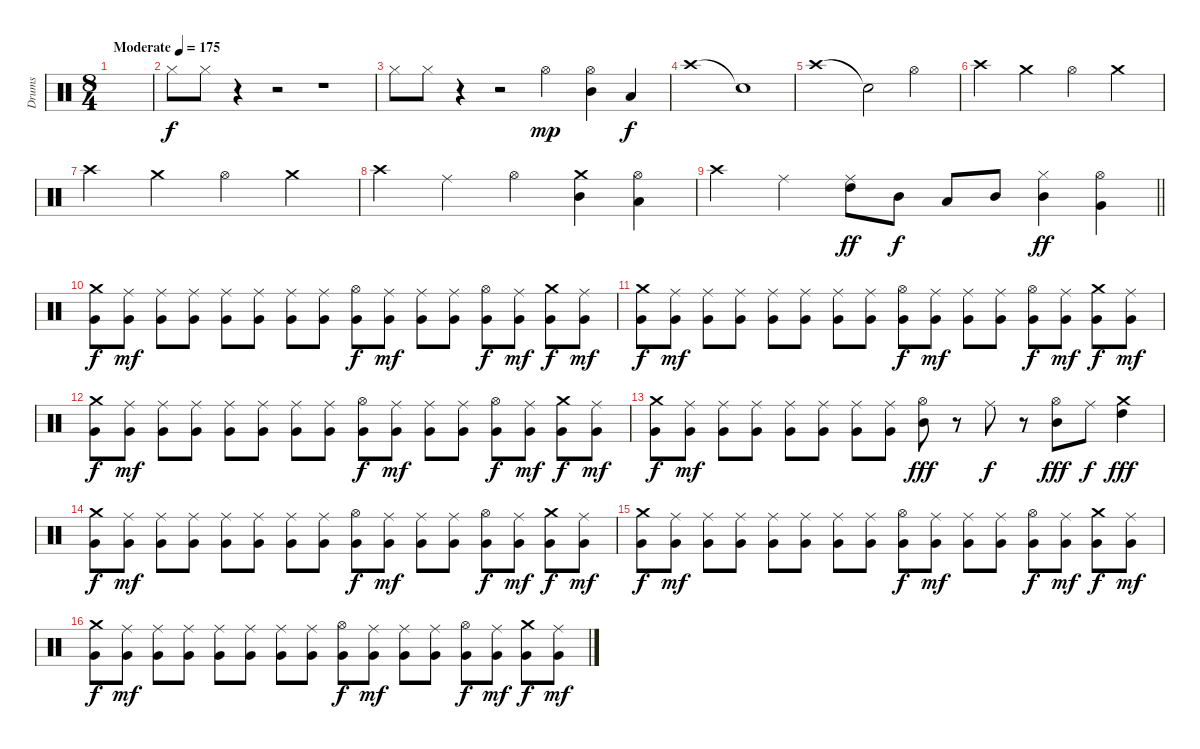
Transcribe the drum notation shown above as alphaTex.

\track ("Drums" "Drums") {instrument percussion}
\staff {score}
\articulation defaults
\ts (8 4)
\tempo (175 "Moderate")
\clef neutral
\ks c
|
"Hi-Hat (closed)".8 "Hi-Hat (closed)".8 r.4 r.2 r.1 |
"Hi-Hat (closed)".8 "Hi-Hat (closed)".8 r.4 r.2 "Hi-Hat (open)".2{dy mp} ("Hi-Hat (open)" "Mid Tom (hit)").4 "Low Tom (hit)".4{dy f} |
"Crash high (hit)".1 "Snare (hit)"{t}.1 |
"Crash high (hit)".1 "Snare (hit)"{t}.2 "Hi-Hat (open)".2 |
"Crash high (hit)".2 "Crash medium (hit)".2 "Hi-Hat (open)".2 "Crash medium (hit)".2 |
"Crash high (hit)".2 "Crash medium (hit)".2 "Hi-Hat (open)".2 "Crash medium (hit)".2 |
"Crash high (hit)".2 "Ride (middle)".2 "Hi-Hat (open)".2 ("Crash medium (hit)" "Mid Tom (hit)").4 ("Hi-Hat (open)" "Low Tom (hit)").4 |
\barLineRight lightlight "Crash high (hit)".2 "Ride (middle)".2
("Ride (middle)" "High Tom (hit)").8{dy ff} "Mid Tom (hit)".8{dy f} "Low Tom (hit)".8 "Mid Tom (hit)".8 ("Hi-Hat (closed)" "Mid Tom (hit)").4{dy ff} ("Hi-Hat (open)" "Very Low Tom (hit)").4 |
\section ("" "")
("Crash medium (hit)" "Very Low Tom (hit)").8{dy f} ("Ride (middle)" "Very Low Tom (hit)").8{dy mf} ("Ride (middle)" "Very Low Tom (hit)").8 ("Ride (middle)" "Very Low Tom (hit)").8 ("Ride (middle)" "Very Low Tom (hit)").8 ("Ride (middle)" "Very Low Tom (hit)").8 ("Ride (middle)" "Very Low Tom (hit)").8 ("Ride (middle)" "Very Low Tom (hit)").8 ("Hi-Hat (open)" "Very Low Tom (hit)").8{dy f} ("Ride (middle)" "Very Low Tom (hit)").8{dy mf} ("Ride (middle)" "Very Low Tom (hit)").8 ("Ride (middle)" "Very Low Tom (hit)").8 ("Hi-Hat (open)" "Very Low Tom (hit)").8{dy f} ("Ride (middle)" "Very Low Tom (hit)").8{dy mf} ("Crash medium (hit)" "Very Low Tom (hit)").8{dy f} ("Ride (middle)" "Very Low Tom (hit)").8{dy mf} |
("Crash medium (hit)" "Very Low Tom (hit)").8{dy f} ("Ride (middle)" "Very Low Tom (hit)").8{dy mf} ("Ride (middle)" "Very Low Tom (hit)").8 ("Ride (middle)" "Very Low Tom (hit)").8 ("Ride (middle)" "Very Low Tom (hit)").8 ("Ride (middle)" "Very Low Tom (hit)").8 ("Ride (middle)" "Very Low Tom (hit)").8 ("Ride (middle)" "Very Low Tom (hit)").8 ("Hi-Hat (open)" "Very Low Tom (hit)").8{dy f} ("Ride (middle)" "Very Low Tom (hit)").8{dy mf} ("Ride (middle)" "Very Low Tom (hit)").8 ("Ride (middle)" "Very Low Tom (hit)").8 ("Hi-Hat (open)" "Very Low Tom (hit)").8{dy f} ("Ride (middle)" "Very Low Tom (hit)").8{dy mf} ("Crash medium (hit)" "Very Low Tom (hit)").8{dy f} ("Ride (middle)" "Very Low Tom (hit)").8{dy mf} |
("Crash medium (hit)" "Very Low Tom (hit)").8{dy f} ("Ride (middle)" "Very Low Tom (hit)").8{dy mf} ("Ride (middle)" "Very Low Tom (hit)").8 ("Ride (middle)" "Very Low Tom (hit)").8 ("Ride (middle)" "Very Low Tom (hit)").8 ("Ride (middle)" "Very Low Tom (hit)").8 ("Ride (middle)" "Very Low Tom (hit)").8 ("Ride (middle)" "Very Low Tom (hit)").8 ("Hi-Hat (open)" "Very Low Tom (hit)").8{dy f} ("Ride (middle)" "Very Low Tom (hit)").8{dy mf} ("Ride (middle)" "Very Low Tom (hit)").8 ("Ride (middle)" "Very Low Tom (hit)").8 ("Hi-Hat (open)" "Very Low Tom (hit)").8{dy f} ("Ride (middle)" "Very Low Tom (hit)").8{dy mf} ("Crash medium (hit)" "Very Low Tom (hit)").8{dy f} ("Ride (middle)" "Very Low Tom (hit)").8{dy mf} |
("Crash medium (hit)" "Very Low Tom (hit)").8{dy f} ("Ride (middle)" "Very Low Tom (hit)").8{dy mf} ("Ride (middle)" "Very Low Tom (hit)").8 ("Ride (middle)" "Very Low Tom (hit)").8 ("Ride (middle)" "Very Low Tom (hit)").8 ("Ride (middle)" "Very Low Tom (hit)").8 ("Ride (middle)" "Very Low Tom (hit)").8 ("Ride (middle)" "Very Low Tom (hit)").8 ("Hi-Hat (open)" "Mid Tom (hit)").8{dy fff} r.8 "Ride (middle)".8{dy f} r.8 ("Hi-Hat (open)" "Mid Tom (hit)").8{dy fff} "Ride (middle)".8{dy f} ("Crash medium (hit)" "High Tom (hit)").4{dy fff} |
("Crash medium (hit)" "Very Low Tom (hit)").8{dy f} ("Ride (middle)" "Very Low Tom (hit)").8{dy mf} ("Ride (middle)" "Very Low Tom (hit)").8 ("Ride (middle)" "Very Low Tom (hit)").8 ("Ride (middle)" "Very Low Tom (hit)").8 ("Ride (middle)" "Very Low Tom (hit)").8 ("Ride (middle)" "Very Low Tom (hit)").8 ("Ride (middle)" "Very Low Tom (hit)").8 ("Hi-Hat (open)" "Very Low Tom (hit)").8{dy f} ("Ride (middle)" "Very Low Tom (hit)").8{dy mf} ("Ride (middle)" "Very Low Tom (hit)").8 ("Ride (middle)" "Very Low Tom (hit)").8 ("Hi-Hat (open)" "Very Low Tom (hit)").8{dy f} ("Ride (middle)" "Very Low Tom (hit)").8{dy mf} ("Crash medium (hit)" "Very Low Tom (hit)").8{dy f} ("Ride (middle)" "Very Low Tom (hit)").8{dy mf} |
("Crash medium (hit)" "Very Low Tom (hit)").8{dy f} ("Ride (middle)" "Very Low Tom (hit)").8{dy mf} ("Ride (middle)" "Very Low Tom (hit)").8 ("Ride (middle)" "Very Low Tom (hit)").8 ("Ride (middle)" "Very Low Tom (hit)").8 ("Ride (middle)" "Very Low Tom (hit)").8 ("Ride (middle)" "Very Low Tom (hit)").8 ("Ride (middle)" "Very Low Tom (hit)").8 ("Hi-Hat (open)" "Very Low Tom (hit)").8{dy f} ("Ride (middle)" "Very Low Tom (hit)").8{dy mf} ("Ride (middle)" "Very Low Tom (hit)").8 ("Ride (middle)" "Very Low Tom (hit)").8 ("Hi-Hat (open)" "Very Low Tom (hit)").8{dy f} ("Ride (middle)" "Very Low Tom (hit)").8{dy mf} ("Crash medium (hit)" "Very Low Tom (hit)").8{dy f} ("Ride (middle)" "Very Low Tom (hit)").8{dy mf} |
("Crash medium (hit)" "Very Low Tom (hit)").8{dy f} ("Ride (middle)" "Very Low Tom (hit)").8{dy mf} ("Ride (middle)" "Very Low Tom (hit)").8 ("Ride (middle)" "Very Low Tom (hit)").8 ("Ride (middle)" "Very Low Tom (hit)").8 ("Ride (middle)" "Very Low Tom (hit)").8 ("Ride (middle)" "Very Low Tom (hit)").8 ("Ride (middle)" "Very Low Tom (hit)").8 ("Hi-Hat (open)" "Very Low Tom (hit)").8{dy f} ("Ride (middle)" "Very Low Tom (hit)").8{dy mf} ("Ride (middle)" "Very Low Tom (hit)").8 ("Ride (middle)" "Very Low Tom (hit)").8 ("Hi-Hat (open)" "Very Low Tom (hit)").8{dy f} ("Ride (middle)" "Very Low Tom (hit)").8{dy mf} ("Crash medium (hit)" "Very Low Tom (hit)").8{dy f} ("Ride (middle)" "Very Low Tom (hit)").8{dy mf}
